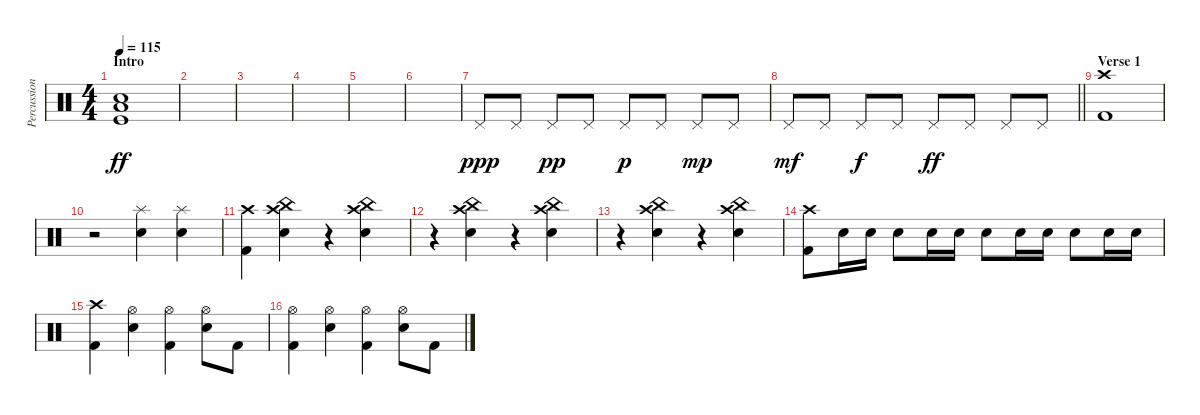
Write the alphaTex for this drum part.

\track ("Percussion" "Percussion") {instrument percussion}
\staff {score}
\articulation defaults
\ts (4 4)
\section ("" "Intro")
\tempo 115
\clef neutral
\ks c
("Electric Snare (hit)" "Kick (hit)" "Low Tom (hit)").1{dy ff} |
|
|
|
|
|
"Pedal Hi-Hat (hit)".8{dy ppp} "Pedal Hi-Hat (hit)".8 "Pedal Hi-Hat (hit)".8{dy pp} "Pedal Hi-Hat (hit)".8 "Pedal Hi-Hat (hit)".8{dy p} "Pedal Hi-Hat (hit)".8 "Pedal Hi-Hat (hit)".8{dy mp} "Pedal Hi-Hat (hit)".8 |
\barLineRight lightlight "Pedal Hi-Hat (hit)".8{dy mf} "Pedal Hi-Hat (hit)".8 "Pedal Hi-Hat (hit)".8{dy f} "Pedal Hi-Hat (hit)".8 "Pedal Hi-Hat (hit)".8{dy ff} "Pedal Hi-Hat (hit)".8 "Pedal Hi-Hat (hit)".8 "Pedal Hi-Hat (hit)".8
|
\section ("" "Verse 1")
("Kick (hit) 2" "Crash high (hit)").1 |
r.2 ("Electric Snare (hit)" "Splash (hit)").4 ("Electric Snare (hit)" "Splash (hit)").4 |
("Kick (hit) 2" "Crash high (hit)").4 ("Electric Snare (hit)" "Crash high (hit)" "China (hit)").4 r.4 ("Electric Snare (hit)" "Crash high (hit)" "China (hit)").4 |
r.4 ("Electric Snare (hit)" "Crash high (hit)" "China (hit)").4 r.4 ("Electric Snare (hit)" "Crash high (hit)" "China (hit)").4 |
r.4 ("Electric Snare (hit)" "Crash high (hit)" "China (hit)").4 r.4 ("Electric Snare (hit)" "Crash high (hit)" "China (hit)").4 |
("Kick (hit) 2" "Crash high (hit)").8 "Electric Snare (hit)".16 "Electric Snare (hit)".16 "Electric Snare (hit)".8 "Electric Snare (hit)".16 "Electric Snare (hit)".16 "Electric Snare (hit)".8 "Electric Snare (hit)".16 "Electric Snare (hit)".16 "Electric Snare (hit)".8 "Electric Snare (hit)".16 "Electric Snare (hit)".16 |
("Kick (hit) 2" "Crash high (hit)").4 ("Electric Snare (hit)" "Hi-Hat (open)").4 ("Kick (hit) 2" "Hi-Hat (open)").4 ("Electric Snare (hit)" "Hi-Hat (open)").8 "Kick (hit) 2".8 |
("Kick (hit) 2" "Hi-Hat (open)").4 ("Electric Snare (hit)" "Hi-Hat (open)").4 ("Kick (hit) 2" "Hi-Hat (open)").4 ("Electric Snare (hit)" "Hi-Hat (open)").8 "Kick (hit) 2".8
